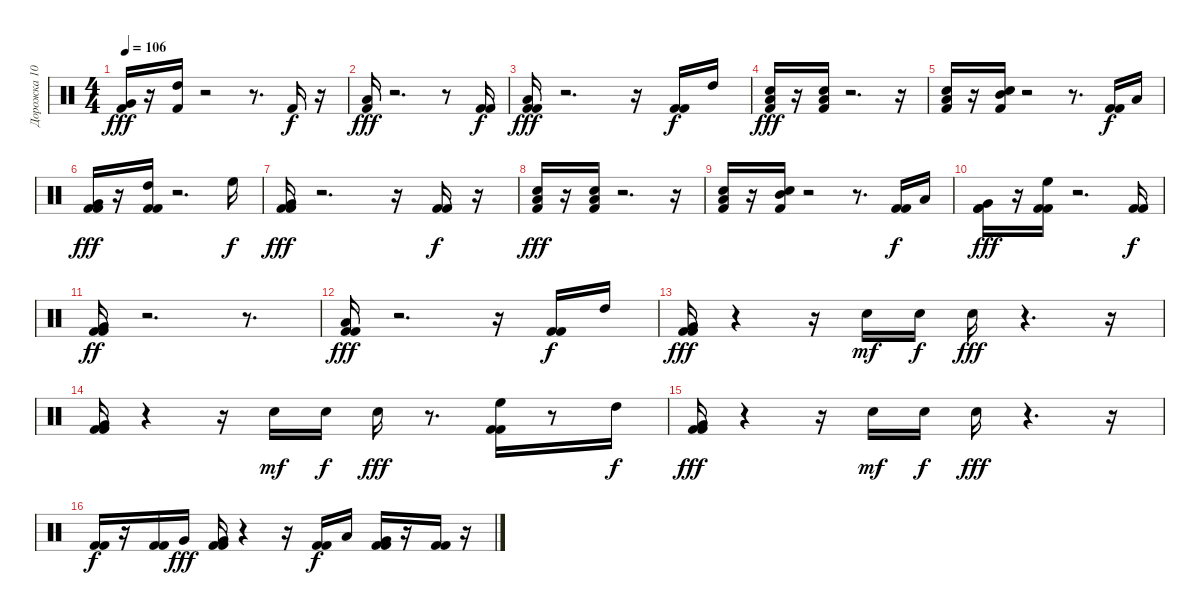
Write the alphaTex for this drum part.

\track ("Дорожка 10" "Дорожка 10") {instrument percussion}
\staff {score}
\articulation defaults
\ts (4 4)
\tempo 106
\clef neutral
\ks c
("Kick (hit) 2" "Very Low Tom (hit)").16{dy fff} r.16 ("Kick (hit) 2" "High Tom (hit)").16 r.2 r.8{d} "Kick (hit) 2".16{dy f} r.16 |
("Kick (hit) 2" "Low Floor Tom (hit)").16{dy fff} r.2{d} r.8 ("Kick (hit) 2" "Kick (hit) 2").16{dy f} |
("Kick (hit) 2" "Kick (hit) 2" "Low Floor Tom (hit)").16{dy fff} r.2{d} r.16 ("Kick (hit) 2" "Kick (hit) 2").16{dy f} "High Tom (hit)".16 |
("Kick (hit) 2" "Snare (hit) 2" "Low Tom (hit)").16{dy fff} r.16 ("Kick (hit) 2" "Snare (hit) 2" "Low Tom (hit)").16 r.2{d} r.16 |
("Kick (hit) 2" "Snare (hit) 2" "Low Tom (hit)").16 r.16 ("Kick (hit) 2" "Snare (hit) 2" "Mid Tom (hit)").16 r.2 r.8{d} ("Kick (hit) 2" "Kick (hit) 2").16{dy f} "Low Tom (hit)".16 |
("Kick (hit) 2" "Kick (hit) 2" "Very Low Tom (hit)").16{dy fff} r.16 ("Kick (hit) 2" "Kick (hit) 2" "High Tom (hit)").16 r.2{d} "High Floor Tom (hit)".16{dy f} |
("Kick (hit) 2" "Kick (hit) 2" "Very Low Tom (hit)").16{dy fff} r.2{d} r.16 ("Kick (hit) 2" "Kick (hit) 2").16{dy f} r.16 |
("Kick (hit) 2" "Snare (hit) 2" "Low Tom (hit)").16{dy fff} r.16 ("Kick (hit) 2" "Snare (hit) 2" "Low Tom (hit)").16 r.2{d} r.16 |
("Kick (hit) 2" "Snare (hit) 2" "Low Tom (hit)").16 r.16 ("Kick (hit) 2" "Snare (hit) 2" "Mid Tom (hit)").16 r.2 r.8{d} ("Kick (hit) 2" "Kick (hit) 2").16{dy f} "Low Tom (hit)".16 |
("Kick (hit) 2" "Kick (hit) 2" "Very Low Tom (hit)").16{dy fff} r.16 ("Kick (hit) 2" "Kick (hit) 2" "High Floor Tom (hit)").16 r.2{d} ("Kick (hit) 2" "Kick (hit) 2").16{dy f} |
("Kick (hit) 2" "Kick (hit) 2" "Very Low Tom (hit)").16{dy ff} r.2{d} r.8{d} |
("Kick (hit) 2" "Kick (hit) 2" "Low Floor Tom (hit)").16{dy fff} r.2{d} r.16 ("Kick (hit) 2" "Kick (hit) 2").16{dy f} "High Tom (hit)".16 |
("Kick (hit) 2" "Kick (hit) 2" "Very Low Tom (hit)").16{dy fff} r.4 r.16 "Snare (hit) 2".16{dy mf} "Snare (hit) 2".16{dy f} "Snare (hit) 2".16{dy fff} r.4{d} r.16 |
("Kick (hit) 2" "Kick (hit) 2" "Very Low Tom (hit)").16 r.4 r.16 "Snare (hit) 2".16{dy mf} "Snare (hit) 2".16{dy f} "Snare (hit) 2".16{dy fff} r.8{d} ("Kick (hit) 2" "Kick (hit) 2" "High Floor Tom (hit)").16 r.8 "High Tom (hit)".16{dy f} |
("Kick (hit) 2" "Kick (hit) 2" "Very Low Tom (hit)").16{dy fff} r.4 r.16 "Snare (hit) 2".16{dy mf} "Snare (hit) 2".16{dy f} "Snare (hit) 2".16{dy fff} r.4{d} r.16 |
("Kick (hit) 2" "Kick (hit) 2").16{dy f} r.16 ("Kick (hit) 2" "Kick (hit) 2").16 "Very Low Tom (hit)".16{dy fff} ("Kick (hit) 2" "Kick (hit) 2" "Very Low Tom (hit)").16 r.4 r.16 ("Kick (hit) 2" "Kick (hit) 2").16{dy f} "Low Tom (hit)".16 ("Kick (hit) 2" "Kick (hit) 2" "Very Low Tom (hit)").16 r.16 ("Kick (hit) 2" "Kick (hit) 2").16 r.16
